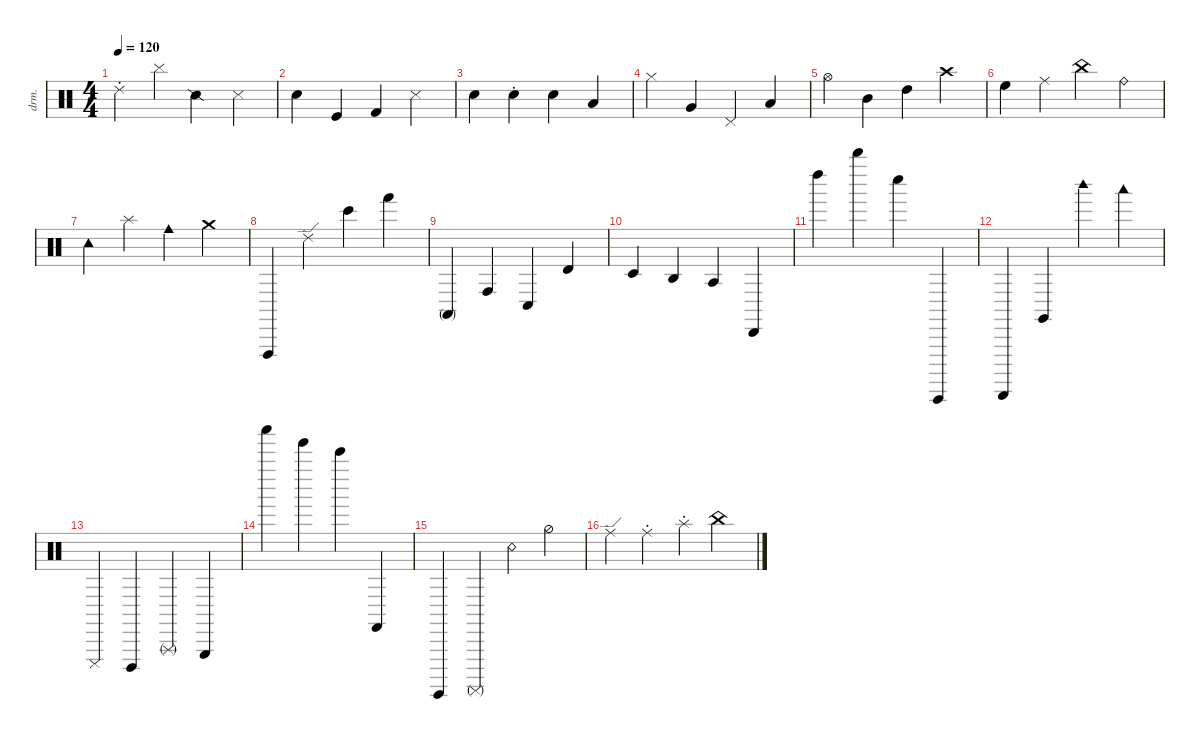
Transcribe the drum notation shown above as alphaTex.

\defaultSystemsLayout 4
\hideDynamics
\bracketExtendMode nobrackets
\otherSystemsTrackNameOrientation horizontal
\track ("Drumkit" "drm.") {instrument percussion}
\staff {score}
\articulation defaults
\ts (4 4)
\tempo 120
\clef neutral
\ks c "Ride (choke) 2".4{dy mf beam Down} "Cymbal (hit)".4{beam Down} "Snare (side stick) 2".4{beam Down} "Metronome (hit)".4{beam Down}
|
"Metronome (bell)".4{beam Down} "Kick (hit)".4{beam Up} "Kick (hit) 2".4{beam Up} "Snare (side stick) 3".4{beam Down} |
"Snare (hit) 2".4{beam Down} "Hand Clap (hit)"{st}.4{beam Down} "Electric Snare (hit)".4{beam Down} "Low Floor Tom (hit)".4{beam Up} |
"Hi-Hat (closed)".4{beam Down} "Very Low Tom (hit)".4{beam Up} "Pedal Hi-Hat (hit)".4{beam Up} "Low Tom (hit)".4{beam Up} |
"Hi-Hat (open)".4{beam Down} "Mid Tom (hit)".4{beam Down} "High Tom (hit)".4{beam Down} "Crash high (hit)".4{beam Down} |
"High Floor Tom (hit)".4{beam Down} "Ride (middle)".4{beam Down} "China (hit)".4{beam Down} "Ride (bell)".4{beam Down} |
"Tambourine (hit)".4{beam Down} "Splash (hit)".4{beam Down} "Cowbell medium (hit)".4{beam Down} "Crash medium (hit)".4{beam Down} |
"Vibraslap (hit)".4{beam Up} "Ride (edge) 2".4{beam Down} "Bongo High (hit)".4{beam Down} "Hand (hit)".4{beam Down} |
"Conga high (mute)".4{beam Up} "Conga high (hit)".4{beam Up} "Conga low (hit)".4{beam Up} "Timbale high (hit)".4{beam Up} |
"Timbale low (hit)".4{beam Up} "Agogo high (hit)".4{beam Up} "Agogo tow (hit)".4{beam Up} "Cabasa (hit)".4{beam Up} |
"Left Maraca (hit)".4{beam Down} "Whistle high (hit)".4{beam Down} "Whistle low (hit)".4{beam Down} "Guiro (hit)".4{beam Up} |
"Guiro (scrap-return)".4{beam Up} "Claves (hit)".4{beam Up} "Woodblock high (hit)".4{beam Down} "Woodblock low (hit)".4{beam Down} |
"Cuica (mute)".4{beam Up} "Cuica (open)".4{beam Up} "Triangle (rnute)".4{beam Up} "Triangle (hit)".4{beam Up} |
"Shaker (hit)".4{beam Down} "Jingle Bell (hit)".4{beam Down} "Bell Tree (hit)".4{beam Down} "Castanets (hit)".4{beam Up} |
"Surdo (hit)".4{beam Up} "Surdo (mute)".4{beam Up} "Snare (rim shot)".4{beam Down} "Hi-Hat (half)".4{beam Down} |
"Ride (edge)".4{beam Down} "Ride (choke)".4{beam Down} "Splash (choke)".4{beam Down} "China (choke)".4{beam Down}
